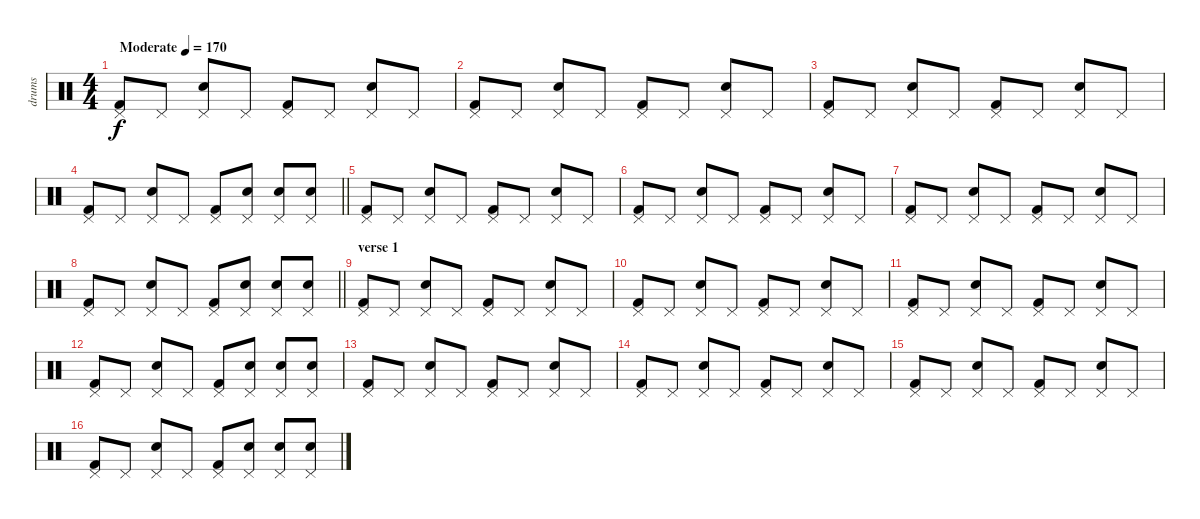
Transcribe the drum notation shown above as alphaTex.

\track ("drums" "drums") {instrument percussion}
\staff {score}
\articulation defaults
\ts (4 4)
\tempo (170 "Moderate")
\clef neutral
\ks c
("Kick (hit) 2" "Pedal Hi-Hat (hit)").8{dy f} "Pedal Hi-Hat (hit)".8 ("Electric Snare (hit)" "Pedal Hi-Hat (hit)").8 "Pedal Hi-Hat (hit)".8 ("Kick (hit) 2" "Pedal Hi-Hat (hit)").8 "Pedal Hi-Hat (hit)".8 ("Electric Snare (hit)" "Pedal Hi-Hat (hit)").8 "Pedal Hi-Hat (hit)".8 |
("Kick (hit) 2" "Pedal Hi-Hat (hit)").8 "Pedal Hi-Hat (hit)".8 ("Electric Snare (hit)" "Pedal Hi-Hat (hit)").8 "Pedal Hi-Hat (hit)".8 ("Kick (hit) 2" "Pedal Hi-Hat (hit)").8 "Pedal Hi-Hat (hit)".8 ("Electric Snare (hit)" "Pedal Hi-Hat (hit)").8 "Pedal Hi-Hat (hit)".8 |
("Kick (hit) 2" "Pedal Hi-Hat (hit)").8 "Pedal Hi-Hat (hit)".8 ("Electric Snare (hit)" "Pedal Hi-Hat (hit)").8 "Pedal Hi-Hat (hit)".8 ("Kick (hit) 2" "Pedal Hi-Hat (hit)").8 "Pedal Hi-Hat (hit)".8 ("Electric Snare (hit)" "Pedal Hi-Hat (hit)").8 "Pedal Hi-Hat (hit)".8 |
\barLineRight lightlight
("Kick (hit) 2" "Pedal Hi-Hat (hit)").8 "Pedal Hi-Hat (hit)".8 ("Electric Snare (hit)" "Pedal Hi-Hat (hit)").8 "Pedal Hi-Hat (hit)".8 ("Kick (hit) 2" "Pedal Hi-Hat (hit)").8 ("Electric Snare (hit)" "Pedal Hi-Hat (hit)").8 ("Electric Snare (hit)" "Pedal Hi-Hat (hit)").8 ("Electric Snare (hit)" "Pedal Hi-Hat (hit)").8 |
("Kick (hit) 2" "Pedal Hi-Hat (hit)").8 "Pedal Hi-Hat (hit)".8 ("Electric Snare (hit)" "Pedal Hi-Hat (hit)").8 "Pedal Hi-Hat (hit)".8 ("Kick (hit) 2" "Pedal Hi-Hat (hit)").8 "Pedal Hi-Hat (hit)".8 ("Electric Snare (hit)" "Pedal Hi-Hat (hit)").8 "Pedal Hi-Hat (hit)".8 |
("Kick (hit) 2" "Pedal Hi-Hat (hit)").8 "Pedal Hi-Hat (hit)".8 ("Electric Snare (hit)" "Pedal Hi-Hat (hit)").8 "Pedal Hi-Hat (hit)".8 ("Kick (hit) 2" "Pedal Hi-Hat (hit)").8 "Pedal Hi-Hat (hit)".8 ("Electric Snare (hit)" "Pedal Hi-Hat (hit)").8 "Pedal Hi-Hat (hit)".8 |
("Kick (hit) 2" "Pedal Hi-Hat (hit)").8 "Pedal Hi-Hat (hit)".8 ("Electric Snare (hit)" "Pedal Hi-Hat (hit)").8 "Pedal Hi-Hat (hit)".8 ("Kick (hit) 2" "Pedal Hi-Hat (hit)").8 "Pedal Hi-Hat (hit)".8 ("Electric Snare (hit)" "Pedal Hi-Hat (hit)").8 "Pedal Hi-Hat (hit)".8 |
\barLineRight lightlight
("Kick (hit) 2" "Pedal Hi-Hat (hit)").8 "Pedal Hi-Hat (hit)".8 ("Electric Snare (hit)" "Pedal Hi-Hat (hit)").8 "Pedal Hi-Hat (hit)".8 ("Kick (hit) 2" "Pedal Hi-Hat (hit)").8 ("Electric Snare (hit)" "Pedal Hi-Hat (hit)").8 ("Electric Snare (hit)" "Pedal Hi-Hat (hit)").8 ("Electric Snare (hit)" "Pedal Hi-Hat (hit)").8 |
\section ("" "verse 1")
("Kick (hit) 2" "Pedal Hi-Hat (hit)").8 "Pedal Hi-Hat (hit)".8 ("Electric Snare (hit)" "Pedal Hi-Hat (hit)").8 "Pedal Hi-Hat (hit)".8 ("Kick (hit) 2" "Pedal Hi-Hat (hit)").8 "Pedal Hi-Hat (hit)".8 ("Electric Snare (hit)" "Pedal Hi-Hat (hit)").8 "Pedal Hi-Hat (hit)".8 |
("Kick (hit) 2" "Pedal Hi-Hat (hit)").8 "Pedal Hi-Hat (hit)".8 ("Electric Snare (hit)" "Pedal Hi-Hat (hit)").8 "Pedal Hi-Hat (hit)".8 ("Kick (hit) 2" "Pedal Hi-Hat (hit)").8 "Pedal Hi-Hat (hit)".8 ("Electric Snare (hit)" "Pedal Hi-Hat (hit)").8 "Pedal Hi-Hat (hit)".8 |
("Kick (hit) 2" "Pedal Hi-Hat (hit)").8 "Pedal Hi-Hat (hit)".8 ("Electric Snare (hit)" "Pedal Hi-Hat (hit)").8 "Pedal Hi-Hat (hit)".8 ("Kick (hit) 2" "Pedal Hi-Hat (hit)").8 "Pedal Hi-Hat (hit)".8 ("Electric Snare (hit)" "Pedal Hi-Hat (hit)").8 "Pedal Hi-Hat (hit)".8 |
("Kick (hit) 2" "Pedal Hi-Hat (hit)").8 "Pedal Hi-Hat (hit)".8 ("Electric Snare (hit)" "Pedal Hi-Hat (hit)").8 "Pedal Hi-Hat (hit)".8 ("Kick (hit) 2" "Pedal Hi-Hat (hit)").8 ("Electric Snare (hit)" "Pedal Hi-Hat (hit)").8 ("Electric Snare (hit)" "Pedal Hi-Hat (hit)").8 ("Electric Snare (hit)" "Pedal Hi-Hat (hit)").8 |
("Kick (hit) 2" "Pedal Hi-Hat (hit)").8 "Pedal Hi-Hat (hit)".8 ("Electric Snare (hit)" "Pedal Hi-Hat (hit)").8 "Pedal Hi-Hat (hit)".8 ("Kick (hit) 2" "Pedal Hi-Hat (hit)").8 "Pedal Hi-Hat (hit)".8 ("Electric Snare (hit)" "Pedal Hi-Hat (hit)").8 "Pedal Hi-Hat (hit)".8 |
("Kick (hit) 2" "Pedal Hi-Hat (hit)").8 "Pedal Hi-Hat (hit)".8 ("Electric Snare (hit)" "Pedal Hi-Hat (hit)").8 "Pedal Hi-Hat (hit)".8 ("Kick (hit) 2" "Pedal Hi-Hat (hit)").8 "Pedal Hi-Hat (hit)".8 ("Electric Snare (hit)" "Pedal Hi-Hat (hit)").8 "Pedal Hi-Hat (hit)".8 |
("Kick (hit) 2" "Pedal Hi-Hat (hit)").8 "Pedal Hi-Hat (hit)".8 ("Electric Snare (hit)" "Pedal Hi-Hat (hit)").8 "Pedal Hi-Hat (hit)".8 ("Kick (hit) 2" "Pedal Hi-Hat (hit)").8 "Pedal Hi-Hat (hit)".8 ("Electric Snare (hit)" "Pedal Hi-Hat (hit)").8 "Pedal Hi-Hat (hit)".8 |
("Kick (hit) 2" "Pedal Hi-Hat (hit)").8 "Pedal Hi-Hat (hit)".8 ("Electric Snare (hit)" "Pedal Hi-Hat (hit)").8 "Pedal Hi-Hat (hit)".8 ("Kick (hit) 2" "Pedal Hi-Hat (hit)").8 ("Electric Snare (hit)" "Pedal Hi-Hat (hit)").8 ("Electric Snare (hit)" "Pedal Hi-Hat (hit)").8 ("Electric Snare (hit)" "Pedal Hi-Hat (hit)").8
